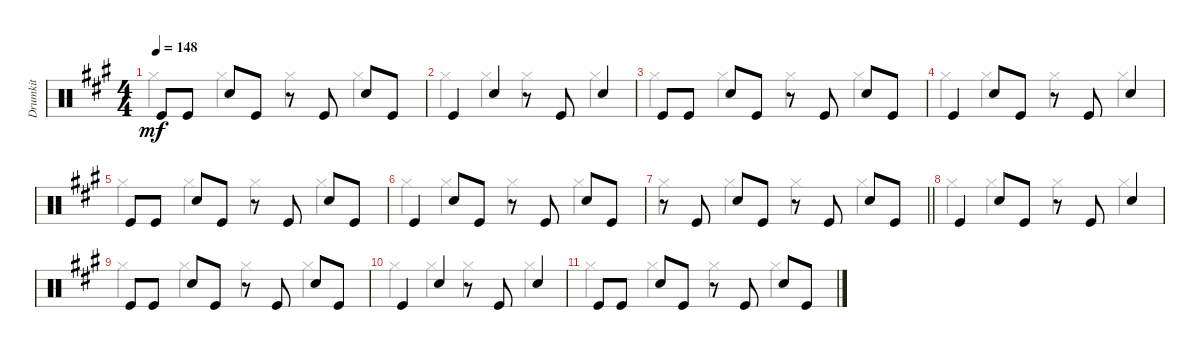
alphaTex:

\track ("Drumkit" "Drumkit") {instrument percussion}
\staff {score}
\articulation defaults
\voice
\ts (4 4)
\tempo 148
\clef neutral
\ks a "Kick (hit)".8{dy mf} "Kick (hit)".8 "Snare (hit) 2".8 "Kick (hit)".8
r.8 "Kick (hit)".8 "Snare (hit) 2".8 "Kick (hit)".8 |
"Kick (hit)".4 "Snare (hit) 2".4 r.8 "Kick (hit)".8 "Snare (hit) 2".4 |
"Kick (hit)".8 "Kick (hit)".8 "Snare (hit) 2".8 "Kick (hit)".8 r.8 "Kick (hit)".8 "Snare (hit) 2".8 "Kick (hit)".8 |
"Kick (hit)".4 "Snare (hit) 2".8 "Kick (hit)".8 r.8 "Kick (hit)".8 "Snare (hit) 2".4 |
"Kick (hit)".8 "Kick (hit)".8 "Snare (hit) 2".8 "Kick (hit)".8 r.8 "Kick (hit)".8 "Snare (hit) 2".8 "Kick (hit)".8 |
"Kick (hit)".4 "Snare (hit) 2".8 "Kick (hit)".8 r.8 "Kick (hit)".8 "Snare (hit) 2".8 "Kick (hit)".8 |
\barLineRight lightlight
r.8 "Kick (hit)".8 "Snare (hit) 2".8 "Kick (hit)".8 r.8 "Kick (hit)".8 "Snare (hit) 2".8 "Kick (hit)".8 |
"Kick (hit)".4 "Snare (hit) 2".8 "Kick (hit)".8 r.8 "Kick (hit)".8 "Snare (hit) 2".4 |
"Kick (hit)".8 "Kick (hit)".8 "Snare (hit) 2".8 "Kick (hit)".8 r.8 "Kick (hit)".8 "Snare (hit) 2".8 "Kick (hit)".8 |
"Kick (hit)".4 "Snare (hit) 2".4 r.8 "Kick (hit)".8 "Snare (hit) 2".4 |
"Kick (hit)".8 "Kick (hit)".8 "Snare (hit) 2".8 "Kick (hit)".8 r.8 "Kick (hit)".8 "Snare (hit) 2".8 "Kick (hit)".8
\voice
\clef neutral
\ottava regular
\simile none
\ks a "Hi-Hat (closed)".4{dy mf} "Hi-Hat (closed)".4 "Hi-Hat (closed)".4 "Hi-Hat (closed)".4
|
"Hi-Hat (closed)".4 "Hi-Hat (closed)".4 "Hi-Hat (closed)".4 "Hi-Hat (closed)".4 |
"Hi-Hat (closed)".4 "Hi-Hat (closed)".4 "Hi-Hat (closed)".4 "Hi-Hat (closed)".4 |
"Hi-Hat (closed)".4 "Hi-Hat (closed)".4 "Hi-Hat (closed)".4 "Hi-Hat (closed)".4 |
"Hi-Hat (closed)".4 "Hi-Hat (closed)".4 "Hi-Hat (closed)".4 "Hi-Hat (closed)".4 |
"Hi-Hat (closed)".4 "Hi-Hat (closed)".4 "Hi-Hat (closed)".4 "Hi-Hat (closed)".4 |
\barLineRight lightlight "Hi-Hat (closed)".4 "Hi-Hat (closed)".4 "Hi-Hat (closed)".4 "Hi-Hat (closed)".4
|
"Hi-Hat (closed)".4 "Hi-Hat (closed)".4 "Hi-Hat (closed)".4 "Hi-Hat (closed)".4 |
"Hi-Hat (closed)".4 "Hi-Hat (closed)".4 "Hi-Hat (closed)".4 "Hi-Hat (closed)".4 |
"Hi-Hat (closed)".4 "Hi-Hat (closed)".4 "Hi-Hat (closed)".4 "Hi-Hat (closed)".4 |
"Hi-Hat (closed)".4 "Hi-Hat (closed)".4 "Hi-Hat (closed)".4 "Hi-Hat (closed)".4
